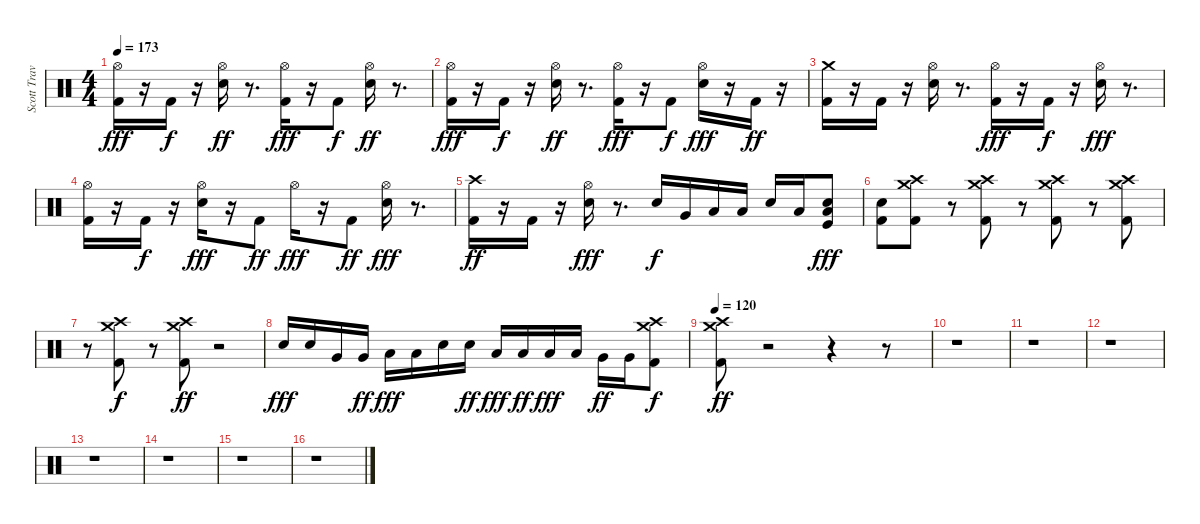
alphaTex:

\track ("Scott Travis" "Scott Trav") {instrument percussion}
\staff {score}
\articulation defaults
\ts (4 4)
\tempo 173
\clef neutral
\ks c
("Kick (hit) 2" "Hi-Hat (open)").16{dy fff} r.16 "Kick (hit) 2".16{dy f} r.16 ("Hi-Hat (open)" "Snare (hit) 2").16{dy ff} r.8{d} ("Kick (hit) 2" "Hi-Hat (open)").16{dy fff} r.16 "Kick (hit) 2".8{dy f} ("Hi-Hat (open)" "Snare (hit) 2").16{dy ff} r.8{d} |
("Kick (hit) 2" "Hi-Hat (open)").16{dy fff} r.16 "Kick (hit) 2".16{dy f} r.16 ("Hi-Hat (open)" "Snare (hit) 2").16{dy ff} r.8{d} ("Kick (hit) 2" "Hi-Hat (open)").16{dy fff} r.16 "Kick (hit) 2".8{dy f} ("Snare (hit) 2" "Hi-Hat (open)").16{dy fff} r.16 "Kick (hit) 2".16{dy ff} r.16 |
("Crash medium (hit)" "Kick (hit) 2").16 r.16 "Kick (hit) 2".16 r.16 ("Snare (hit) 2" "Hi-Hat (open)").16 r.8{d} ("Kick (hit) 2" "Hi-Hat (open)").16{dy fff} r.16 "Kick (hit) 2".16{dy f} r.16 ("Snare (hit) 2" "Hi-Hat (open)").16{dy fff} r.8{d} |
("Kick (hit) 2" "Hi-Hat (open)").16 r.16 "Kick (hit) 2".16{dy f} r.16 ("Snare (hit) 2" "Hi-Hat (open)").16{dy fff} r.16 "Kick (hit) 2".8{dy ff} "Hi-Hat (open)".16{dy fff} r.16 "Kick (hit) 2".8{dy ff} ("Snare (hit) 2" "Hi-Hat (open)").16{dy fff} r.8{d} |
("Crash high (hit)" "Kick (hit) 2").16{dy ff} r.16 "Kick (hit) 2".16 r.16 ("Hi-Hat (open)" "Snare (hit) 2").16{dy fff} r.8{d} "Snare (hit) 2".16{dy f} "Very Low Tom (hit)".16 "Low Floor Tom (hit)".16 "Low Floor Tom (hit)".16 "Snare (hit) 2".16 "Low Floor Tom (hit)".16 ("Snare (hit) 2" "Low Floor Tom (hit)" "Kick (hit)").8{dy fff} |
("Snare (hit) 2" "Kick (hit) 2").8 ("Kick (hit) 2" "Crash high (hit)" "Crash medium (hit)").8 r.8 ("Kick (hit) 2" "Crash high (hit)" "Crash medium (hit)").8 r.8 ("Crash high (hit)" "Kick (hit) 2" "Crash medium (hit)").8 r.8 ("Crash high (hit)" "Kick (hit) 2" "Crash medium (hit)").8 |
r.8 ("Kick (hit) 2" "Crash high (hit)" "Crash medium (hit)").8{dy f} r.8 ("Crash high (hit)" "Crash medium (hit)" "Kick (hit) 2").8{dy ff} r.2 |
"Snare (hit) 2".16{dy fff} "Snare (hit) 2".16 "Very Low Tom (hit)".16 "Very Low Tom (hit)".16{dy ff} "Low Floor Tom (hit)".16{dy fff} "Low Floor Tom (hit)".16 "Snare (hit) 2".16 "Snare (hit) 2".16{dy ff} "Low Tom (hit)".16{dy fff} "Low Tom (hit)".16{dy ff} "Low Tom (hit)".16{dy fff} "Low Tom (hit)".16 "Very Low Tom (hit)".16{dy ff} "Very Low Tom (hit)".16 ("Crash medium (hit)" "Crash high (hit)" "Kick (hit) 2").8{dy f} |
\tempo 120
("Kick (hit) 2" "Crash high (hit)" "Crash medium (hit)").8{dy ff} r.2 r.4 r.8 |
r.1 |
r.1 |
r.1 |
r.1 |
r.1 |
r.1 |
r.1
